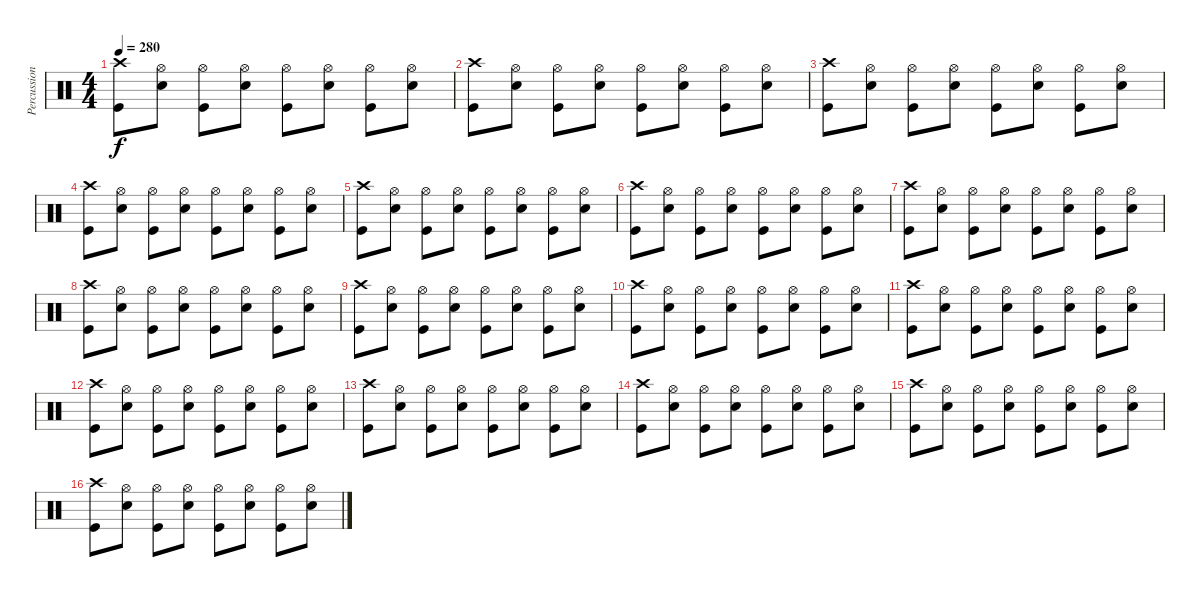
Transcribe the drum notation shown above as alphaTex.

\track ("Percussion" "Percussion") {instrument percussion}
\staff {score}
\articulation defaults
\ts (4 4)
\tempo 280
\clef neutral
\ks c
("Crash high (hit)" "Kick (hit)").8{dy f} ("Hi-Hat (open)" "Snare (hit) 2").8 ("Hi-Hat (open)" "Kick (hit)").8 ("Hi-Hat (open)" "Snare (hit) 2").8 ("Hi-Hat (open)" "Kick (hit)").8 ("Hi-Hat (open)" "Snare (hit) 2").8 ("Hi-Hat (open)" "Kick (hit)").8 ("Hi-Hat (open)" "Snare (hit) 2").8 |
("Crash high (hit)" "Kick (hit)").8 ("Hi-Hat (open)" "Snare (hit) 2").8 ("Hi-Hat (open)" "Kick (hit)").8 ("Hi-Hat (open)" "Snare (hit) 2").8 ("Hi-Hat (open)" "Kick (hit)").8 ("Hi-Hat (open)" "Snare (hit) 2").8 ("Hi-Hat (open)" "Kick (hit)").8 ("Hi-Hat (open)" "Snare (hit) 2").8 |
("Crash high (hit)" "Kick (hit)").8 ("Hi-Hat (open)" "Snare (hit) 2").8 ("Hi-Hat (open)" "Kick (hit)").8 ("Hi-Hat (open)" "Snare (hit) 2").8 ("Hi-Hat (open)" "Kick (hit)").8 ("Hi-Hat (open)" "Snare (hit) 2").8 ("Hi-Hat (open)" "Kick (hit)").8 ("Hi-Hat (open)" "Snare (hit) 2").8 |
("Crash high (hit)" "Kick (hit)").8 ("Hi-Hat (open)" "Snare (hit) 2").8 ("Hi-Hat (open)" "Kick (hit)").8 ("Hi-Hat (open)" "Snare (hit) 2").8 ("Hi-Hat (open)" "Kick (hit)").8 ("Hi-Hat (open)" "Snare (hit) 2").8 ("Hi-Hat (open)" "Kick (hit)").8 ("Hi-Hat (open)" "Snare (hit) 2").8 |
("Crash high (hit)" "Kick (hit)").8 ("Hi-Hat (open)" "Snare (hit) 2").8 ("Hi-Hat (open)" "Kick (hit)").8 ("Hi-Hat (open)" "Snare (hit) 2").8 ("Hi-Hat (open)" "Kick (hit)").8 ("Hi-Hat (open)" "Snare (hit) 2").8 ("Hi-Hat (open)" "Kick (hit)").8 ("Hi-Hat (open)" "Snare (hit) 2").8 |
("Crash high (hit)" "Kick (hit)").8 ("Hi-Hat (open)" "Snare (hit) 2").8 ("Hi-Hat (open)" "Kick (hit)").8 ("Hi-Hat (open)" "Snare (hit) 2").8 ("Hi-Hat (open)" "Kick (hit)").8 ("Hi-Hat (open)" "Snare (hit) 2").8 ("Hi-Hat (open)" "Kick (hit)").8 ("Hi-Hat (open)" "Snare (hit) 2").8 |
("Crash high (hit)" "Kick (hit)").8 ("Hi-Hat (open)" "Snare (hit) 2").8 ("Hi-Hat (open)" "Kick (hit)").8 ("Hi-Hat (open)" "Snare (hit) 2").8 ("Hi-Hat (open)" "Kick (hit)").8 ("Hi-Hat (open)" "Snare (hit) 2").8 ("Hi-Hat (open)" "Kick (hit)").8 ("Hi-Hat (open)" "Snare (hit) 2").8 |
("Crash high (hit)" "Kick (hit)").8 ("Hi-Hat (open)" "Snare (hit) 2").8 ("Hi-Hat (open)" "Kick (hit)").8 ("Hi-Hat (open)" "Snare (hit) 2").8 ("Hi-Hat (open)" "Kick (hit)").8 ("Hi-Hat (open)" "Snare (hit) 2").8 ("Hi-Hat (open)" "Kick (hit)").8 ("Hi-Hat (open)" "Snare (hit) 2").8 |
("Crash high (hit)" "Kick (hit)").8 ("Hi-Hat (open)" "Snare (hit) 2").8 ("Hi-Hat (open)" "Kick (hit)").8 ("Hi-Hat (open)" "Snare (hit) 2").8 ("Hi-Hat (open)" "Kick (hit)").8 ("Hi-Hat (open)" "Snare (hit) 2").8 ("Hi-Hat (open)" "Kick (hit)").8 ("Hi-Hat (open)" "Snare (hit) 2").8 |
("Crash high (hit)" "Kick (hit)").8 ("Hi-Hat (open)" "Snare (hit) 2").8 ("Hi-Hat (open)" "Kick (hit)").8 ("Hi-Hat (open)" "Snare (hit) 2").8 ("Hi-Hat (open)" "Kick (hit)").8 ("Hi-Hat (open)" "Snare (hit) 2").8 ("Hi-Hat (open)" "Kick (hit)").8 ("Hi-Hat (open)" "Snare (hit) 2").8 |
("Crash high (hit)" "Kick (hit)").8 ("Hi-Hat (open)" "Snare (hit) 2").8 ("Hi-Hat (open)" "Kick (hit)").8 ("Hi-Hat (open)" "Snare (hit) 2").8 ("Hi-Hat (open)" "Kick (hit)").8 ("Hi-Hat (open)" "Snare (hit) 2").8 ("Hi-Hat (open)" "Kick (hit)").8 ("Hi-Hat (open)" "Snare (hit) 2").8 |
("Crash high (hit)" "Kick (hit)").8 ("Hi-Hat (open)" "Snare (hit) 2").8 ("Hi-Hat (open)" "Kick (hit)").8 ("Hi-Hat (open)" "Snare (hit) 2").8 ("Hi-Hat (open)" "Kick (hit)").8 ("Hi-Hat (open)" "Snare (hit) 2").8 ("Hi-Hat (open)" "Kick (hit)").8 ("Hi-Hat (open)" "Snare (hit) 2").8 |
("Crash high (hit)" "Kick (hit)").8 ("Hi-Hat (open)" "Snare (hit) 2").8 ("Hi-Hat (open)" "Kick (hit)").8 ("Hi-Hat (open)" "Snare (hit) 2").8 ("Hi-Hat (open)" "Kick (hit)").8 ("Hi-Hat (open)" "Snare (hit) 2").8 ("Hi-Hat (open)" "Kick (hit)").8 ("Hi-Hat (open)" "Snare (hit) 2").8 |
("Crash high (hit)" "Kick (hit)").8 ("Hi-Hat (open)" "Snare (hit) 2").8 ("Hi-Hat (open)" "Kick (hit)").8 ("Hi-Hat (open)" "Snare (hit) 2").8 ("Hi-Hat (open)" "Kick (hit)").8 ("Hi-Hat (open)" "Snare (hit) 2").8 ("Hi-Hat (open)" "Kick (hit)").8 ("Hi-Hat (open)" "Snare (hit) 2").8 |
("Crash high (hit)" "Kick (hit)").8 ("Hi-Hat (open)" "Snare (hit) 2").8 ("Hi-Hat (open)" "Kick (hit)").8 ("Hi-Hat (open)" "Snare (hit) 2").8 ("Hi-Hat (open)" "Kick (hit)").8 ("Hi-Hat (open)" "Snare (hit) 2").8 ("Hi-Hat (open)" "Kick (hit)").8 ("Hi-Hat (open)" "Snare (hit) 2").8 |
("Crash high (hit)" "Kick (hit)").8 ("Hi-Hat (open)" "Snare (hit) 2").8 ("Hi-Hat (open)" "Kick (hit)").8 ("Hi-Hat (open)" "Snare (hit) 2").8 ("Hi-Hat (open)" "Kick (hit)").8 ("Hi-Hat (open)" "Snare (hit) 2").8 ("Hi-Hat (open)" "Kick (hit)").8 ("Hi-Hat (open)" "Snare (hit) 2").8
